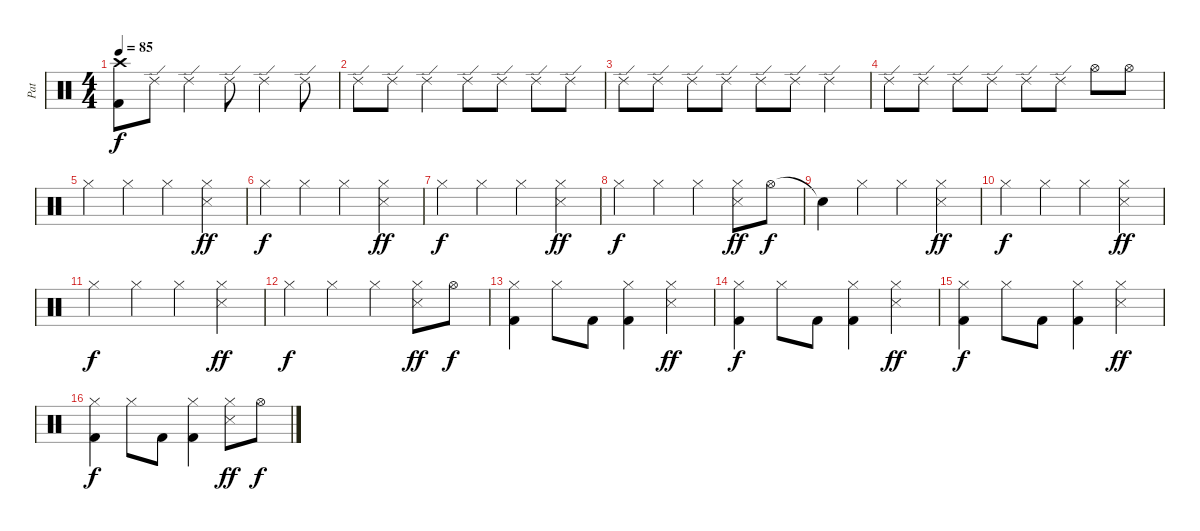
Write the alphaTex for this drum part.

\track ("Pat" "Pat") {instrument percussion}
\staff {score}
\articulation defaults
\ts (4 4)
\tempo 85
\clef neutral
\ks c
("Crash high (hit)" "Kick (hit) 2").8{dy f} "Ride (edge) 2".8 "Ride (edge) 2".4 "Ride (edge) 2".8 "Ride (edge) 2".4 "Ride (edge) 2".8 |
"Ride (edge) 2".8 "Ride (edge) 2".8 "Ride (edge) 2".4 "Ride (edge) 2".8 "Ride (edge) 2".8 "Ride (edge) 2".8 "Ride (edge) 2".8 |
"Ride (edge) 2".8 "Ride (edge) 2".8 "Ride (edge) 2".8 "Ride (edge) 2".8 "Ride (edge) 2".8 "Ride (edge) 2".8 "Ride (edge) 2".4 |
"Ride (edge) 2".8 "Ride (edge) 2".8 "Ride (edge) 2".8 "Ride (edge) 2".8 "Ride (edge) 2".8 "Ride (edge) 2".8 "Hi-Hat (open)".8 "Hi-Hat (open)".8 |
"Hi-Hat (closed)".4 "Hi-Hat (closed)".4 "Hi-Hat (closed)".4 ("Hi-Hat (closed)" "Snare (side stick) 3").4{dy ff} |
"Hi-Hat (closed)".4{dy f} "Hi-Hat (closed)".4 "Hi-Hat (closed)".4 ("Hi-Hat (closed)" "Snare (side stick) 3").4{dy ff} |
"Hi-Hat (closed)".4{dy f} "Hi-Hat (closed)".4 "Hi-Hat (closed)".4 ("Hi-Hat (closed)" "Snare (side stick) 3").4{dy ff} |
"Hi-Hat (closed)".4{dy f} "Hi-Hat (closed)".4 "Hi-Hat (closed)".4 ("Hi-Hat (closed)" "Snare (side stick) 3").8{dy ff} "Hi-Hat (open)".8{dy f} |
"Snare (hit)"{t}.4 "Hi-Hat (closed)".4 "Hi-Hat (closed)".4 ("Hi-Hat (closed)" "Snare (side stick) 3").4{dy ff} |
"Hi-Hat (closed)".4{dy f} "Hi-Hat (closed)".4 "Hi-Hat (closed)".4 ("Hi-Hat (closed)" "Snare (side stick) 3").4{dy ff} |
"Hi-Hat (closed)".4{dy f} "Hi-Hat (closed)".4 "Hi-Hat (closed)".4 ("Hi-Hat (closed)" "Snare (side stick) 3").4{dy ff} |
"Hi-Hat (closed)".4{dy f} "Hi-Hat (closed)".4 "Hi-Hat (closed)".4 ("Hi-Hat (closed)" "Snare (side stick) 3").8{dy ff} "Hi-Hat (open)".8{dy f} |
("Hi-Hat (closed)" "Kick (hit) 2").4 "Hi-Hat (closed)".8 "Kick (hit) 2".8 ("Hi-Hat (closed)" "Kick (hit) 2").4 ("Hi-Hat (closed)" "Snare (side stick) 3").4{dy ff} |
("Hi-Hat (closed)" "Kick (hit) 2").4{dy f} "Hi-Hat (closed)".8 "Kick (hit) 2".8 ("Hi-Hat (closed)" "Kick (hit) 2").4 ("Hi-Hat (closed)" "Snare (side stick) 3").4{dy ff} |
("Hi-Hat (closed)" "Kick (hit) 2").4{dy f} "Hi-Hat (closed)".8 "Kick (hit) 2".8 ("Hi-Hat (closed)" "Kick (hit) 2").4 ("Hi-Hat (closed)" "Snare (side stick) 3").4{dy ff} |
("Hi-Hat (closed)" "Kick (hit) 2").4{dy f} "Hi-Hat (closed)".8 "Kick (hit) 2".8 ("Hi-Hat (closed)" "Kick (hit) 2").4 ("Hi-Hat (closed)" "Snare (side stick) 3").8{dy ff} "Hi-Hat (open)".8{dy f}
